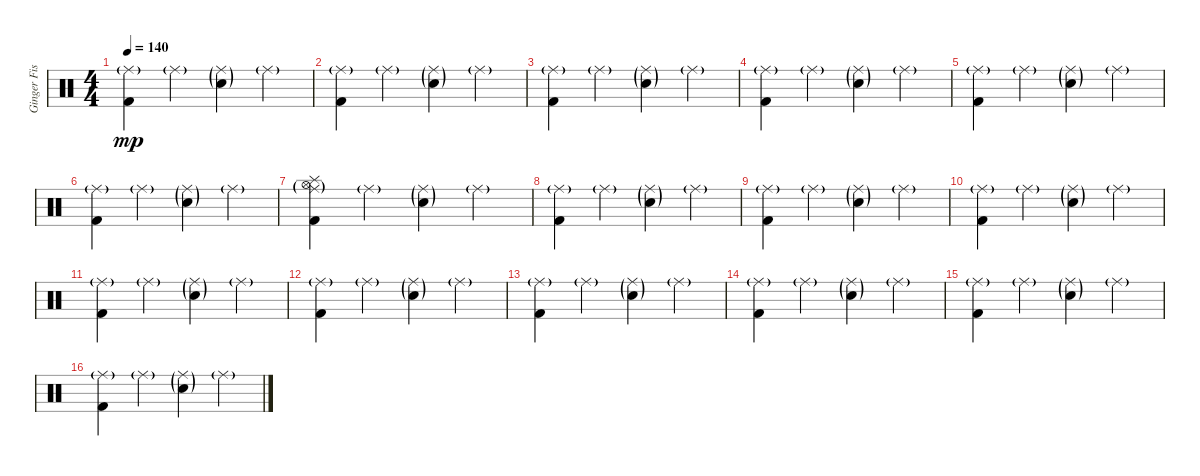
\track ("Ginger Fish" "Ginger Fis") {instrument percussion}
\staff {score}
\articulation defaults
\ts (4 4)
\tempo 140
\clef neutral
\ks c
("Ride (middle)"{g} "Kick (hit) 2").4{dy mp} "Ride (middle)"{g}.4 ("Ride (middle)"{g} "Electric Snare (hit)"{g}).4 "Ride (middle)"{g}.4 |
("Ride (middle)"{g} "Kick (hit) 2").4 "Ride (middle)"{g}.4 ("Ride (middle)"{g} "Electric Snare (hit)"{g}).4 "Ride (middle)"{g}.4 |
("Ride (middle)"{g} "Kick (hit) 2").4 "Ride (middle)"{g}.4 ("Ride (middle)"{g} "Electric Snare (hit)"{g}).4 "Ride (middle)"{g}.4 |
("Ride (middle)"{g} "Kick (hit) 2").4 "Ride (middle)"{g}.4 ("Ride (middle)"{g} "Electric Snare (hit)"{g}).4 "Ride (middle)"{g}.4 |
("Ride (middle)"{g} "Kick (hit) 2").4 "Ride (middle)"{g}.4 ("Ride (middle)"{g} "Electric Snare (hit)"{g}).4 "Ride (middle)"{g}.4 |
("Ride (middle)"{g} "Kick (hit) 2").4 "Ride (middle)"{g}.4 ("Ride (middle)"{g} "Electric Snare (hit)"{g}).4 "Ride (middle)"{g}.4 |
("Ride (middle)"{g} "Hi-Hat (open)"{g} "Splash (hit)" "Kick (hit) 2").4 "Ride (middle)"{g}.4 ("Ride (middle)"{g} "Snare (hit) 2"{g}).4 "Ride (middle)"{g}.4 |
("Ride (middle)"{g} "Kick (hit) 2").4 "Ride (middle)"{g}.4 ("Ride (middle)"{g} "Snare (hit) 2"{g}).4 "Ride (middle)"{g}.4 |
("Ride (middle)"{g} "Kick (hit) 2").4 "Ride (middle)"{g}.4 ("Ride (middle)"{g} "Snare (hit) 2"{g}).4 "Ride (middle)"{g}.4 |
("Ride (middle)"{g} "Kick (hit) 2").4 "Ride (middle)"{g}.4 ("Ride (middle)"{g} "Snare (hit) 2"{g}).4 "Ride (middle)"{g}.4 |
("Ride (middle)"{g} "Kick (hit) 2").4 "Ride (middle)"{g}.4 ("Ride (middle)"{g} "Snare (hit) 2"{g}).4 "Ride (middle)"{g}.4 |
("Ride (middle)"{g} "Kick (hit) 2").4 "Ride (middle)"{g}.4 ("Ride (middle)"{g} "Snare (hit) 2"{g}).4 "Ride (middle)"{g}.4 |
("Ride (middle)"{g} "Kick (hit) 2").4 "Ride (middle)"{g}.4 ("Ride (middle)"{g} "Snare (hit) 2"{g}).4 "Ride (middle)"{g}.4 |
("Ride (middle)"{g} "Kick (hit) 2").4 "Ride (middle)"{g}.4 ("Ride (middle)"{g} "Snare (hit) 2"{g}).4 "Ride (middle)"{g}.4 |
("Ride (middle)"{g} "Kick (hit) 2").4 "Ride (middle)"{g}.4 ("Ride (middle)"{g} "Snare (hit) 2"{g}).4 "Ride (middle)"{g}.4 |
("Ride (middle)"{g} "Kick (hit) 2").4 "Ride (middle)"{g}.4 ("Ride (middle)"{g} "Snare (hit) 2"{g}).4 "Ride (middle)"{g}.4
